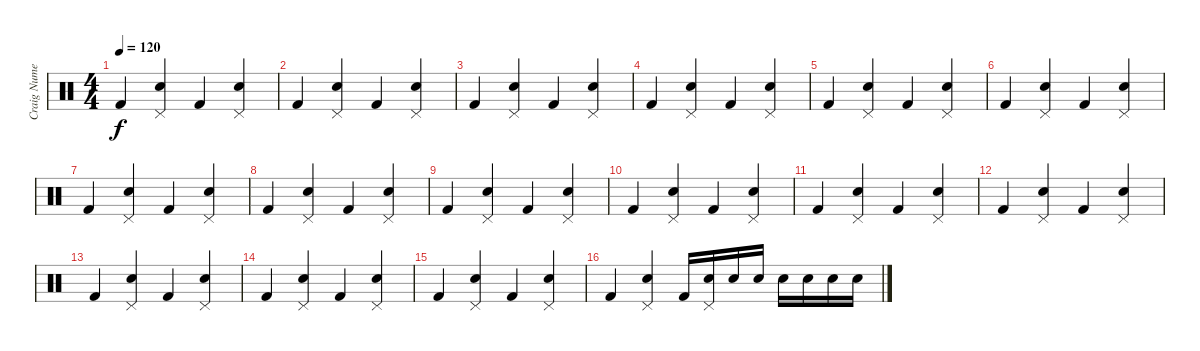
\track ("Craig Numenbacher - Drums" "Craig Nume") {instrument percussion}
\staff {score}
\articulation defaults
\ts (4 4)
\tempo 120
\clef neutral
\ks c "Kick (hit) 2".4{dy f}
("Pedal Hi-Hat (hit)" "Snare (hit) 2").4 "Kick (hit) 2".4 ("Pedal Hi-Hat (hit)" "Snare (hit) 2").4 |
"Kick (hit) 2".4 ("Pedal Hi-Hat (hit)" "Snare (hit) 2").4 "Kick (hit) 2".4 ("Pedal Hi-Hat (hit)" "Snare (hit) 2").4 |
"Kick (hit) 2".4 ("Pedal Hi-Hat (hit)" "Snare (hit) 2").4 "Kick (hit) 2".4 ("Pedal Hi-Hat (hit)" "Snare (hit) 2").4 |
"Kick (hit) 2".4 ("Pedal Hi-Hat (hit)" "Snare (hit) 2").4 "Kick (hit) 2".4 ("Pedal Hi-Hat (hit)" "Snare (hit) 2").4 |
"Kick (hit) 2".4 ("Pedal Hi-Hat (hit)" "Snare (hit) 2").4 "Kick (hit) 2".4 ("Pedal Hi-Hat (hit)" "Snare (hit) 2").4 |
"Kick (hit) 2".4 ("Pedal Hi-Hat (hit)" "Snare (hit) 2").4 "Kick (hit) 2".4 ("Pedal Hi-Hat (hit)" "Snare (hit) 2").4 |
"Kick (hit) 2".4 ("Pedal Hi-Hat (hit)" "Snare (hit) 2").4 "Kick (hit) 2".4 ("Pedal Hi-Hat (hit)" "Snare (hit) 2").4 |
"Kick (hit) 2".4 ("Pedal Hi-Hat (hit)" "Snare (hit) 2").4 "Kick (hit) 2".4 ("Pedal Hi-Hat (hit)" "Snare (hit) 2").4 |
"Kick (hit) 2".4 ("Pedal Hi-Hat (hit)" "Snare (hit) 2").4 "Kick (hit) 2".4 ("Pedal Hi-Hat (hit)" "Snare (hit) 2").4 |
"Kick (hit) 2".4 ("Pedal Hi-Hat (hit)" "Snare (hit) 2").4 "Kick (hit) 2".4 ("Pedal Hi-Hat (hit)" "Snare (hit) 2").4 |
"Kick (hit) 2".4 ("Pedal Hi-Hat (hit)" "Snare (hit) 2").4 "Kick (hit) 2".4 ("Pedal Hi-Hat (hit)" "Snare (hit) 2").4 |
"Kick (hit) 2".4 ("Pedal Hi-Hat (hit)" "Snare (hit) 2").4 "Kick (hit) 2".4 ("Pedal Hi-Hat (hit)" "Snare (hit) 2").4 |
"Kick (hit) 2".4 ("Pedal Hi-Hat (hit)" "Snare (hit) 2").4 "Kick (hit) 2".4 ("Pedal Hi-Hat (hit)" "Snare (hit) 2").4 |
"Kick (hit) 2".4 ("Pedal Hi-Hat (hit)" "Snare (hit) 2").4 "Kick (hit) 2".4 ("Pedal Hi-Hat (hit)" "Snare (hit) 2").4 |
"Kick (hit) 2".4 ("Pedal Hi-Hat (hit)" "Snare (hit) 2").4 "Kick (hit) 2".4 ("Pedal Hi-Hat (hit)" "Snare (hit) 2").4 |
"Kick (hit) 2".4 ("Pedal Hi-Hat (hit)" "Snare (hit) 2").4 "Kick (hit) 2".16 ("Pedal Hi-Hat (hit)" "Snare (hit) 2").16 "Snare (hit) 2".16 "Snare (hit) 2".16 "Snare (hit) 2".16 "Snare (hit) 2".16 "Snare (hit) 2".16 "Snare (hit) 2".16
